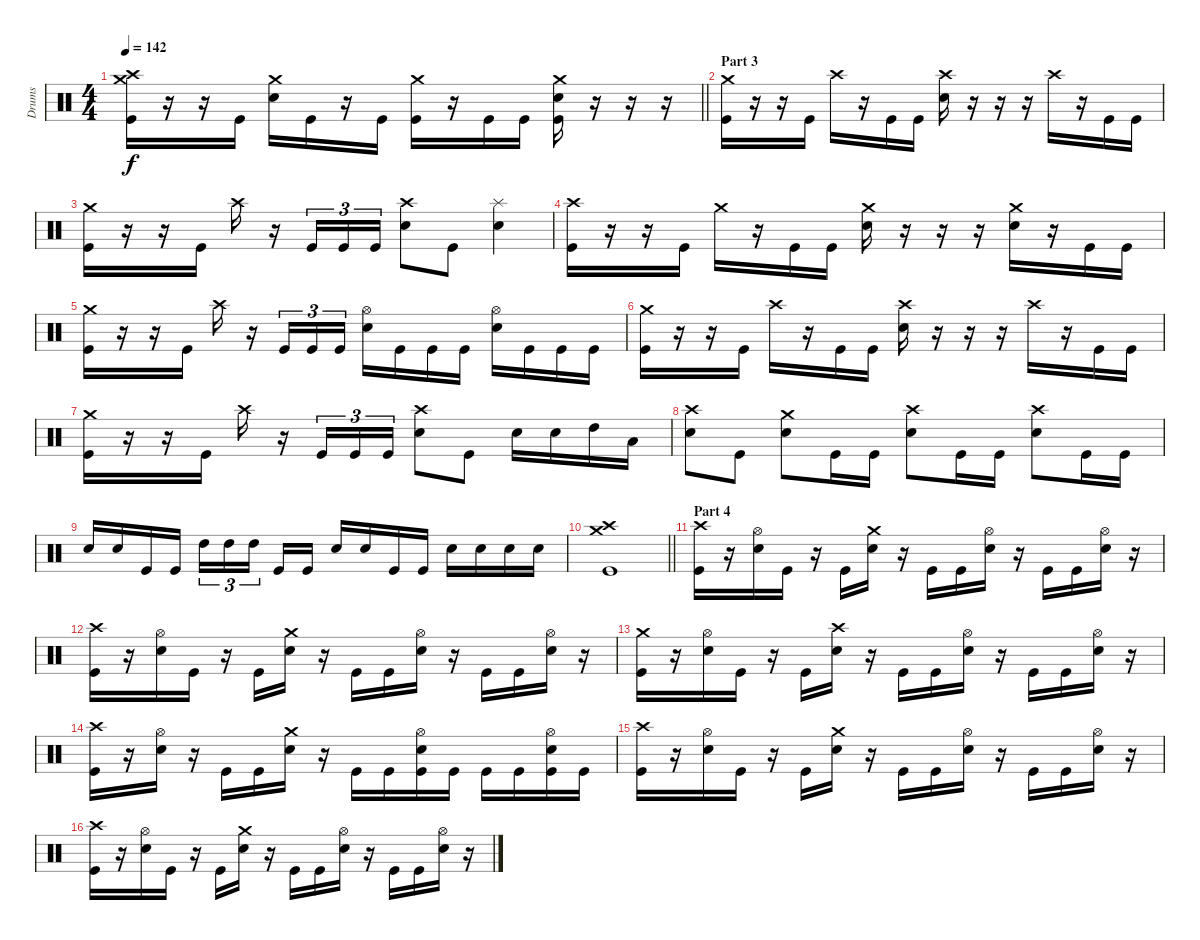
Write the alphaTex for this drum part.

\track ("Drums" "Drums") {instrument percussion}
\staff {score}
\articulation defaults
\ts (4 4)
\tempo 142
\clef neutral
\barLineRight lightlight
\ks c
("Crash high (hit)" "Crash medium (hit)" "Kick (hit)").16{dy f} r.16 r.16 "Kick (hit)".16 ("Crash medium (hit)" "Snare (hit) 2").16 "Kick (hit)".16 r.16 "Kick (hit)".16 ("Crash medium (hit)" "Kick (hit)").16 r.16 "Kick (hit)".16 "Kick (hit)".16 ("Crash medium (hit)" "Snare (hit) 2" "Kick (hit)").16 r.16 r.16 r.16 |
\section ("" "Part 3")
("Crash medium (hit)" "Kick (hit)").16 r.16 r.16 "Kick (hit)".16 "Crash high (hit)".16 r.16 "Kick (hit)".16 "Kick (hit)".16 ("Crash high (hit)" "Snare (hit) 2").16 r.16 r.16 r.16 "Crash high (hit)".16 r.16 "Kick (hit)".16 "Kick (hit)".16 |
("Crash medium (hit)" "Kick (hit)").16 r.16 r.16 "Kick (hit)".16 "Crash high (hit)".16 r.16 "Kick (hit)".16{tu (3 2)} "Kick (hit)".16{tu (3 2)} "Kick (hit)".16{tu (3 2)} ("Crash high (hit)" "Snare (hit) 2").8 "Kick (hit)".8 ("Splash (hit)" "Snare (hit) 2").4 |
("Crash high (hit)" "Kick (hit)").16 r.16 r.16 "Kick (hit)".16 "Crash medium (hit)".16 r.16 "Kick (hit)".16 "Kick (hit)".16 ("Crash medium (hit)" "Snare (hit) 2").16 r.16 r.16 r.16 ("Crash medium (hit)" "Snare (hit) 2").16 r.16 "Kick (hit)".16 "Kick (hit)".16 |
("Crash medium (hit)" "Kick (hit)").16 r.16 r.16 "Kick (hit)".16 "Crash high (hit)".16 r.16 "Kick (hit)".16{tu (3 2)} "Kick (hit)".16{tu (3 2)} "Kick (hit)".16{tu (3 2)} ("Hi-Hat (open)" "Snare (hit) 2").16 "Kick (hit)".16 "Kick (hit)".16 "Kick (hit)".16 ("Hi-Hat (open)" "Snare (hit) 2").16 "Kick (hit)".16 "Kick (hit)".16 "Kick (hit)".16 |
("Crash medium (hit)" "Kick (hit)").16 r.16 r.16 "Kick (hit)".16 "Crash high (hit)".16 r.16 "Kick (hit)".16 "Kick (hit)".16 ("Crash high (hit)" "Snare (hit) 2").16 r.16 r.16 r.16 "Crash high (hit)".16 r.16 "Kick (hit)".16 "Kick (hit)".16 |
("Crash medium (hit)" "Kick (hit)").16 r.16 r.16 "Kick (hit)".16 "Crash high (hit)".16 r.16 "Kick (hit)".16{tu (3 2)} "Kick (hit)".16{tu (3 2)} "Kick (hit)".16{tu (3 2)} ("Crash high (hit)" "Snare (hit) 2").8 "Kick (hit)".8 "Snare (hit) 2".16 "Snare (hit) 2".16 "High Tom (hit)".16 "Low Tom (hit)".16 |
("Crash high (hit)" "Snare (hit) 2").8 "Kick (hit)".8 ("Crash medium (hit)" "Snare (hit) 2").8 "Kick (hit)".16 "Kick (hit)".16 ("Crash high (hit)" "Snare (hit) 2").8 "Kick (hit)".16 "Kick (hit)".16 ("Crash high (hit)" "Snare (hit) 2").8 "Kick (hit)".16 "Kick (hit)".16 |
"Snare (hit) 2".16 "Snare (hit) 2".16 "Kick (hit)".16 "Kick (hit)".16 "High Tom (hit)".16{tu (3 2)} "High Tom (hit)".16{tu (3 2)} "High Tom (hit)".16{tu (3 2) beam splitsecondary} "Kick (hit)".16 "Kick (hit)".16 "Snare (hit) 2".16 "Snare (hit) 2".16 "Kick (hit)".16 "Kick (hit)".16 "Snare (hit) 2".16 "Snare (hit) 2".16 "Snare (hit) 2".16 "Snare (hit) 2".16 |
\barLineRight lightlight
("Crash medium (hit)" "Crash high (hit)" "Kick (hit)").1 |
\section ("" "Part 4")
("Crash high (hit)" "Kick (hit)").16 r.16 ("Hi-Hat (open)" "Snare (hit) 2").16 "Kick (hit)".16 r.16 "Kick (hit)".16 ("Crash medium (hit)" "Snare (hit) 2").16 r.16 "Kick (hit)".16 "Kick (hit)".16 ("Hi-Hat (open)" "Snare (hit) 2").16 r.16 "Kick (hit)".16 "Kick (hit)".16 ("Hi-Hat (open)" "Snare (hit) 2").16 r.16 |
("Crash high (hit)" "Kick (hit)").16 r.16 ("Hi-Hat (open)" "Snare (hit) 2").16 "Kick (hit)".16 r.16 "Kick (hit)".16 ("Crash medium (hit)" "Snare (hit) 2").16 r.16 "Kick (hit)".16 "Kick (hit)".16 ("Hi-Hat (open)" "Snare (hit) 2").16 r.16 "Kick (hit)".16 "Kick (hit)".16 ("Hi-Hat (open)" "Snare (hit) 2").16 r.16 |
("Crash medium (hit)" "Kick (hit)").16 r.16 ("Hi-Hat (open)" "Snare (hit) 2").16 "Kick (hit)".16 r.16 "Kick (hit)".16 ("Crash high (hit)" "Snare (hit) 2").16 r.16 "Kick (hit)".16 "Kick (hit)".16 ("Hi-Hat (open)" "Snare (hit) 2").16 r.16 "Kick (hit)".16 "Kick (hit)".16 ("Hi-Hat (open)" "Snare (hit) 2").16 r.16 |
("Crash high (hit)" "Kick (hit)").16 r.16 ("Hi-Hat (open)" "Snare (hit) 2").16 r.16 "Kick (hit)".16 "Kick (hit)".16 ("Crash medium (hit)" "Snare (hit) 2").16 r.16 "Kick (hit)".16 "Kick (hit)".16 ("Hi-Hat (open)" "Snare (hit) 2" "Kick (hit)").16 "Kick (hit)".16 "Kick (hit)".16 "Kick (hit)".16 ("Hi-Hat (open)" "Snare (hit) 2" "Kick (hit)").16 "Kick (hit)".16 |
("Crash high (hit)" "Kick (hit)").16 r.16 ("Hi-Hat (open)" "Snare (hit) 2").16 "Kick (hit)".16 r.16 "Kick (hit)".16 ("Crash medium (hit)" "Snare (hit) 2").16 r.16 "Kick (hit)".16 "Kick (hit)".16 ("Hi-Hat (open)" "Snare (hit) 2").16 r.16 "Kick (hit)".16 "Kick (hit)".16 ("Hi-Hat (open)" "Snare (hit) 2").16 r.16 |
("Crash high (hit)" "Kick (hit)").16 r.16 ("Hi-Hat (open)" "Snare (hit) 2").16 "Kick (hit)".16 r.16 "Kick (hit)".16 ("Crash medium (hit)" "Snare (hit) 2").16 r.16 "Kick (hit)".16 "Kick (hit)".16 ("Hi-Hat (open)" "Snare (hit) 2").16 r.16 "Kick (hit)".16 "Kick (hit)".16 ("Hi-Hat (open)" "Snare (hit) 2").16 r.16
